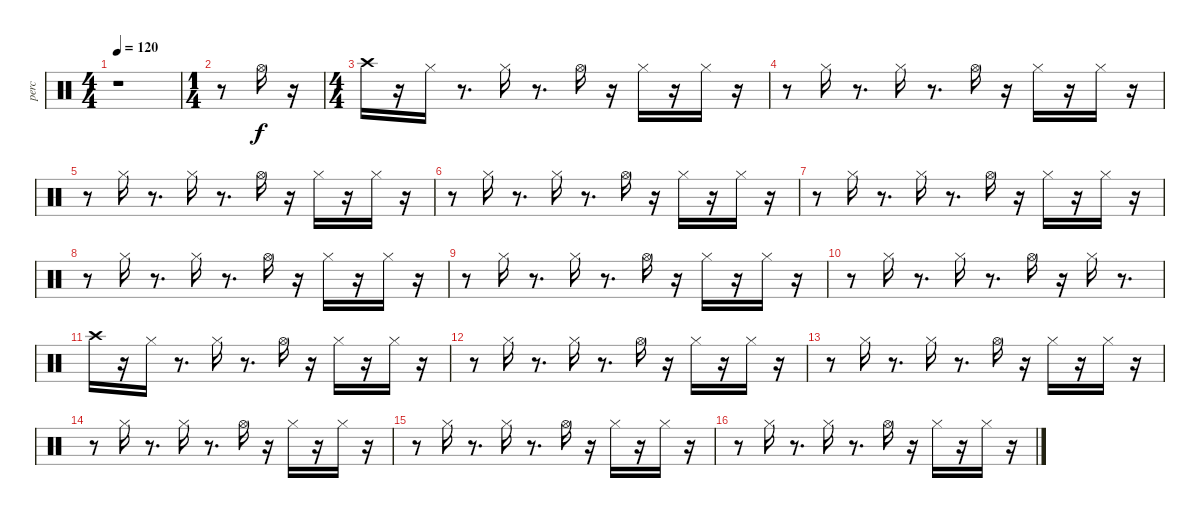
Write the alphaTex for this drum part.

\track ("perc" "perc") {instrument percussion}
\staff {score}
\articulation defaults
\ts (4 4)
\tempo 120
\clef neutral
\ks c
r.1{dy f} |
\ts (1 4)
r.8 "Hi-Hat (open)".16 r.16 |
\ts (4 4)
"Crash high (hit)".16 r.16 "Hi-Hat (closed)".16 r.8{d} "Hi-Hat (closed)".16 r.8{d} "Hi-Hat (open)".16 r.16 "Hi-Hat (closed)".16 r.16 "Hi-Hat (closed)".16 r.16 |
r.8 "Hi-Hat (closed)".16 r.8{d} "Hi-Hat (closed)".16 r.8{d} "Hi-Hat (open)".16 r.16 "Hi-Hat (closed)".16 r.16 "Hi-Hat (closed)".16 r.16 |
r.8 "Hi-Hat (closed)".16 r.8{d} "Hi-Hat (closed)".16 r.8{d} "Hi-Hat (open)".16 r.16 "Hi-Hat (closed)".16 r.16 "Hi-Hat (closed)".16 r.16 |
r.8 "Hi-Hat (closed)".16 r.8{d} "Hi-Hat (closed)".16 r.8{d} "Hi-Hat (open)".16 r.16 "Hi-Hat (closed)".16 r.16 "Hi-Hat (closed)".16 r.16 |
r.8 "Hi-Hat (closed)".16 r.8{d} "Hi-Hat (closed)".16 r.8{d} "Hi-Hat (open)".16 r.16 "Hi-Hat (closed)".16 r.16 "Hi-Hat (closed)".16 r.16 |
r.8 "Hi-Hat (closed)".16 r.8{d} "Hi-Hat (closed)".16 r.8{d} "Hi-Hat (open)".16 r.16 "Hi-Hat (closed)".16 r.16 "Hi-Hat (closed)".16 r.16 |
r.8 "Hi-Hat (closed)".16 r.8{d} "Hi-Hat (closed)".16 r.8{d} "Hi-Hat (open)".16 r.16 "Hi-Hat (closed)".16 r.16 "Hi-Hat (closed)".16 r.16 |
r.8 "Hi-Hat (closed)".16 r.8{d} "Hi-Hat (closed)".16 r.8{d} "Hi-Hat (open)".16 r.16 "Hi-Hat (closed)".16 r.8{d} |
"Crash high (hit)".16 r.16 "Hi-Hat (closed)".16 r.8{d} "Hi-Hat (closed)".16 r.8{d} "Hi-Hat (open)".16 r.16 "Hi-Hat (closed)".16 r.16 "Hi-Hat (closed)".16 r.16 |
r.8 "Hi-Hat (closed)".16 r.8{d} "Hi-Hat (closed)".16 r.8{d} "Hi-Hat (open)".16 r.16 "Hi-Hat (closed)".16 r.16 "Hi-Hat (closed)".16 r.16 |
r.8 "Hi-Hat (closed)".16 r.8{d} "Hi-Hat (closed)".16 r.8{d} "Hi-Hat (open)".16 r.16 "Hi-Hat (closed)".16 r.16 "Hi-Hat (closed)".16 r.16 |
r.8 "Hi-Hat (closed)".16 r.8{d} "Hi-Hat (closed)".16 r.8{d} "Hi-Hat (open)".16 r.16 "Hi-Hat (closed)".16 r.16 "Hi-Hat (closed)".16 r.16 |
r.8 "Hi-Hat (closed)".16 r.8{d} "Hi-Hat (closed)".16 r.8{d} "Hi-Hat (open)".16 r.16 "Hi-Hat (closed)".16 r.16 "Hi-Hat (closed)".16 r.16 |
r.8 "Hi-Hat (closed)".16 r.8{d} "Hi-Hat (closed)".16 r.8{d} "Hi-Hat (open)".16 r.16 "Hi-Hat (closed)".16 r.16 "Hi-Hat (closed)".16 r.16
